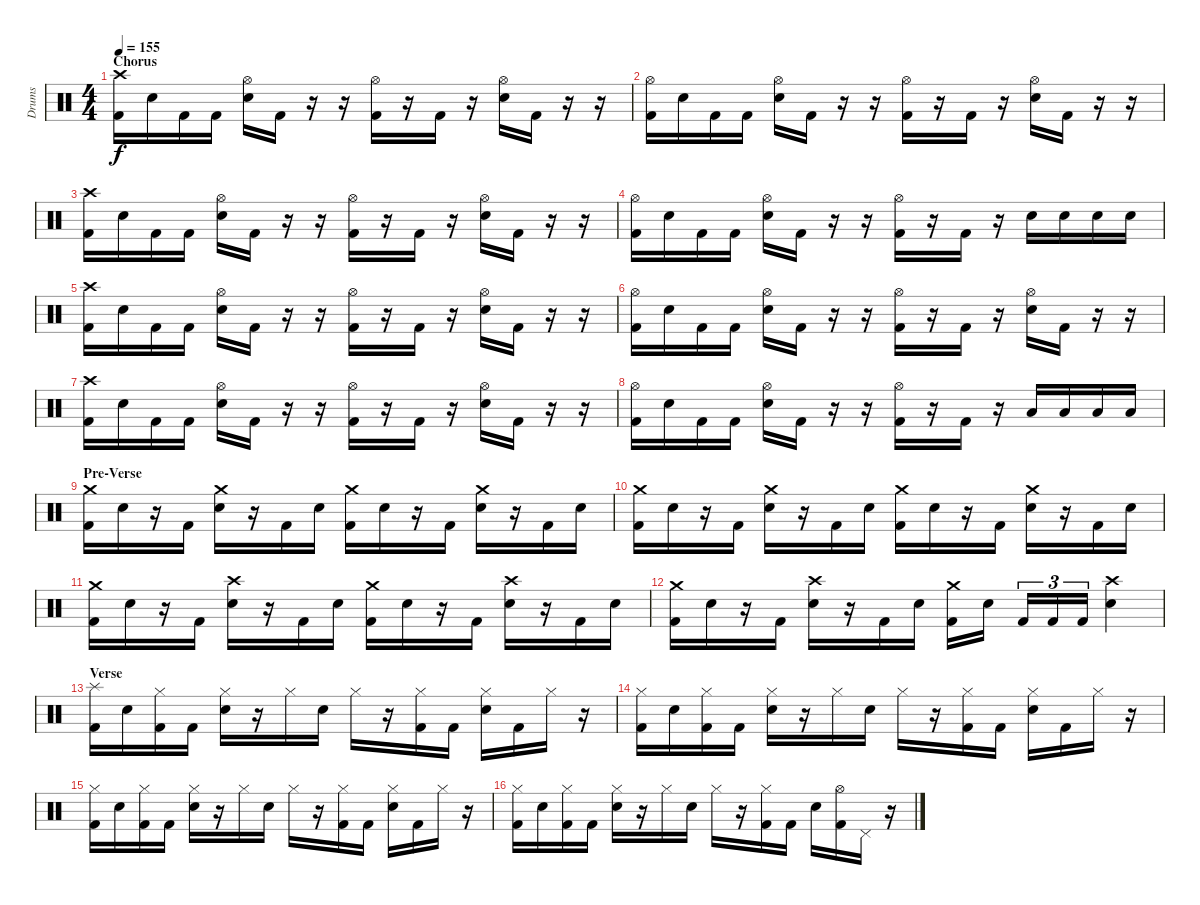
\track ("Drums" "Drums") {instrument percussion}
\staff {score}
\articulation defaults
\ts (4 4)
\section ("" "Chorus")
\tempo 155
\clef neutral
\ks c
("Crash high (hit)" "Kick (hit) 2").16{dy f} "Electric Snare (hit)".16 "Kick (hit) 2".16 "Kick (hit) 2".16 ("Hi-Hat (open)" "Electric Snare (hit)").16 "Kick (hit) 2".16 r.16 r.16 ("Hi-Hat (open)" "Kick (hit) 2").16 r.16 "Kick (hit) 2".16 r.16 ("Hi-Hat (open)" "Electric Snare (hit)").16 "Kick (hit) 2".16 r.16 r.16 |
("Hi-Hat (open)" "Kick (hit) 2").16 "Electric Snare (hit)".16 "Kick (hit) 2".16 "Kick (hit) 2".16 ("Hi-Hat (open)" "Electric Snare (hit)").16 "Kick (hit) 2".16 r.16 r.16 ("Hi-Hat (open)" "Kick (hit) 2").16 r.16 "Kick (hit) 2".16 r.16 ("Hi-Hat (open)" "Electric Snare (hit)").16 "Kick (hit) 2".16 r.16 r.16 |
("Crash high (hit)" "Kick (hit) 2").16 "Electric Snare (hit)".16 "Kick (hit) 2".16 "Kick (hit) 2".16 ("Hi-Hat (open)" "Electric Snare (hit)").16 "Kick (hit) 2".16 r.16 r.16 ("Hi-Hat (open)" "Kick (hit) 2").16 r.16 "Kick (hit) 2".16 r.16 ("Hi-Hat (open)" "Electric Snare (hit)").16 "Kick (hit) 2".16 r.16 r.16 |
("Hi-Hat (open)" "Kick (hit) 2").16 "Electric Snare (hit)".16 "Kick (hit) 2".16 "Kick (hit) 2".16 ("Hi-Hat (open)" "Electric Snare (hit)").16 "Kick (hit) 2".16 r.16 r.16 ("Hi-Hat (open)" "Kick (hit) 2").16 r.16 "Kick (hit) 2".16 r.16 "Electric Snare (hit)".16 "Electric Snare (hit)".16 "Electric Snare (hit)".16 "Electric Snare (hit)".16 |
("Crash high (hit)" "Kick (hit) 2").16 "Electric Snare (hit)".16 "Kick (hit) 2".16 "Kick (hit) 2".16 ("Hi-Hat (open)" "Electric Snare (hit)").16 "Kick (hit) 2".16 r.16 r.16 ("Hi-Hat (open)" "Kick (hit) 2").16 r.16 "Kick (hit) 2".16 r.16 ("Hi-Hat (open)" "Electric Snare (hit)").16 "Kick (hit) 2".16 r.16 r.16 |
("Hi-Hat (open)" "Kick (hit) 2").16 "Electric Snare (hit)".16 "Kick (hit) 2".16 "Kick (hit) 2".16 ("Hi-Hat (open)" "Electric Snare (hit)").16 "Kick (hit) 2".16 r.16 r.16 ("Hi-Hat (open)" "Kick (hit) 2").16 r.16 "Kick (hit) 2".16 r.16 ("Hi-Hat (open)" "Electric Snare (hit)").16 "Kick (hit) 2".16 r.16 r.16 |
("Crash high (hit)" "Kick (hit) 2").16 "Electric Snare (hit)".16 "Kick (hit) 2".16 "Kick (hit) 2".16 ("Hi-Hat (open)" "Electric Snare (hit)").16 "Kick (hit) 2".16 r.16 r.16 ("Hi-Hat (open)" "Kick (hit) 2").16 r.16 "Kick (hit) 2".16 r.16 ("Hi-Hat (open)" "Electric Snare (hit)").16 "Kick (hit) 2".16 r.16 r.16 |
("Hi-Hat (open)" "Kick (hit) 2").16 "Electric Snare (hit)".16 "Kick (hit) 2".16 "Kick (hit) 2".16 ("Hi-Hat (open)" "Electric Snare (hit)").16 "Kick (hit) 2".16 r.16 r.16 ("Hi-Hat (open)" "Kick (hit) 2").16 r.16 "Kick (hit) 2".16 r.16 "Low Tom (hit)".16 "Low Tom (hit)".16 "Low Tom (hit)".16 "Low Tom (hit)".16 |
\section ("" "Pre-Verse")
("Crash medium (hit)" "Kick (hit) 2").16 "Electric Snare (hit)".16 r.16 "Kick (hit) 2".16 ("Crash medium (hit)" "Electric Snare (hit)").16 r.16 "Kick (hit) 2".16 "Electric Snare (hit)".16 ("Crash medium (hit)" "Kick (hit) 2").16 "Electric Snare (hit)".16 r.16 "Kick (hit) 2".16 ("Crash medium (hit)" "Electric Snare (hit)").16 r.16 "Kick (hit) 2".16 "Electric Snare (hit)".16 |
("Crash medium (hit)" "Kick (hit) 2").16 "Electric Snare (hit)".16 r.16 "Kick (hit) 2".16 ("Crash medium (hit)" "Electric Snare (hit)").16 r.16 "Kick (hit) 2".16 "Electric Snare (hit)".16 ("Crash medium (hit)" "Kick (hit) 2").16 "Electric Snare (hit)".16 r.16 "Kick (hit) 2".16 ("Crash medium (hit)" "Electric Snare (hit)").16 r.16 "Kick (hit) 2".16 "Electric Snare (hit)".16 |
("Crash medium (hit)" "Kick (hit) 2").16 "Electric Snare (hit)".16 r.16 "Kick (hit) 2".16 ("Crash high (hit)" "Electric Snare (hit)").16 r.16 "Kick (hit) 2".16 "Electric Snare (hit)".16 ("Crash medium (hit)" "Kick (hit) 2").16 "Electric Snare (hit)".16 r.16 "Kick (hit) 2".16 ("Crash high (hit)" "Electric Snare (hit)").16 r.16 "Kick (hit) 2".16 "Electric Snare (hit)".16 |
("Crash medium (hit)" "Kick (hit) 2").16 "Electric Snare (hit)".16 r.16 "Kick (hit) 2".16 ("Crash high (hit)" "Electric Snare (hit)").16 r.16 "Kick (hit) 2".16 "Electric Snare (hit)".16 ("Crash medium (hit)" "Kick (hit) 2").16 "Electric Snare (hit)".16 "Kick (hit) 2".16{tu (3 2)} "Kick (hit) 2".16{tu (3 2)} "Kick (hit) 2".16{tu (3 2)} ("Crash high (hit)" "Electric Snare (hit)").4 |
\section ("" "Verse")
("Splash (hit)" "Kick (hit) 2").16 "Electric Snare (hit)".16 ("Hi-Hat (closed)" "Kick (hit) 2").16 "Kick (hit) 2".16 ("Hi-Hat (closed)" "Electric Snare (hit)").16 r.16 "Hi-Hat (closed)".16 "Electric Snare (hit)".16 "Hi-Hat (closed)".16 r.16 ("Hi-Hat (closed)" "Kick (hit) 2").16 "Kick (hit) 2".16 ("Hi-Hat (closed)" "Electric Snare (hit)").16 "Kick (hit) 2".16 "Hi-Hat (closed)".16 r.16 |
("Hi-Hat (closed)" "Kick (hit) 2").16 "Electric Snare (hit)".16 ("Hi-Hat (closed)" "Kick (hit) 2").16 "Kick (hit) 2".16 ("Hi-Hat (closed)" "Electric Snare (hit)").16 r.16 "Hi-Hat (closed)".16 "Electric Snare (hit)".16 "Hi-Hat (closed)".16 r.16 ("Hi-Hat (closed)" "Kick (hit) 2").16 "Kick (hit) 2".16 ("Hi-Hat (closed)" "Electric Snare (hit)").16 "Kick (hit) 2".16 "Hi-Hat (closed)".16 r.16 |
("Hi-Hat (closed)" "Kick (hit) 2").16 "Electric Snare (hit)".16 ("Hi-Hat (closed)" "Kick (hit) 2").16 "Kick (hit) 2".16 ("Hi-Hat (closed)" "Electric Snare (hit)").16 r.16 "Hi-Hat (closed)".16 "Electric Snare (hit)".16 "Hi-Hat (closed)".16 r.16 ("Hi-Hat (closed)" "Kick (hit) 2").16 "Kick (hit) 2".16 ("Hi-Hat (closed)" "Electric Snare (hit)").16 "Kick (hit) 2".16 "Hi-Hat (closed)".16 r.16 |
("Hi-Hat (closed)" "Kick (hit) 2").16 "Electric Snare (hit)".16 ("Hi-Hat (closed)" "Kick (hit) 2").16 "Kick (hit) 2".16 ("Hi-Hat (closed)" "Electric Snare (hit)").16 r.16 "Hi-Hat (closed)".16 "Electric Snare (hit)".16 "Hi-Hat (closed)".16 r.16 ("Hi-Hat (closed)" "Kick (hit) 2").16 "Kick (hit) 2".16 "Electric Snare (hit)".16 ("Hi-Hat (open)" "Kick (hit) 2").16 "Pedal Hi-Hat (hit)".16 r.16
